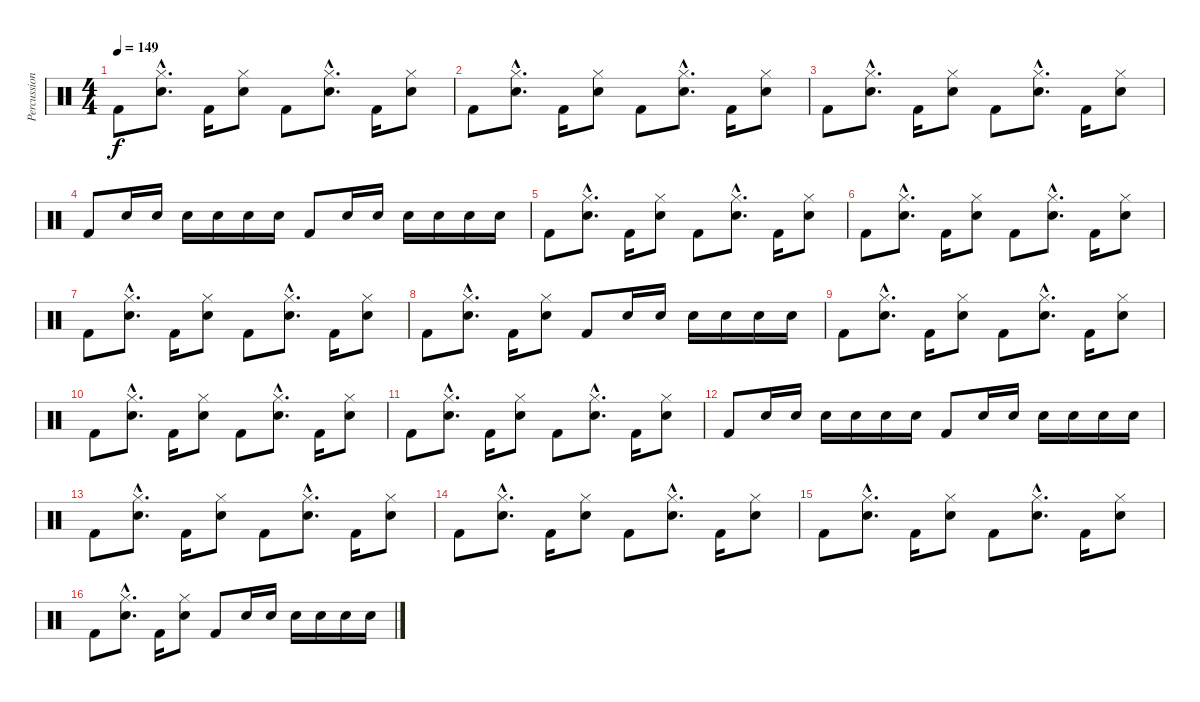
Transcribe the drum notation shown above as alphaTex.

\track ("Percussion" "Percussion") {instrument percussion}
\staff {score}
\articulation defaults
\ts (4 4)
\tempo 149
\clef neutral
\ks c "Kick (hit) 2".8{dy f}
("Snare (hit) 2"{hac} "Hi-Hat (closed)"{hac}).8{d} "Kick (hit) 2".16 ("Snare (hit) 2" "Hi-Hat (closed)").8 "Kick (hit) 2".8 ("Snare (hit) 2"{hac} "Hi-Hat (closed)"{hac}).8{d} "Kick (hit) 2".16 ("Snare (hit) 2" "Hi-Hat (closed)").8 |
"Kick (hit) 2".8 ("Snare (hit) 2"{hac} "Hi-Hat (closed)"{hac}).8{d} "Kick (hit) 2".16 ("Snare (hit) 2" "Hi-Hat (closed)").8 "Kick (hit) 2".8 ("Snare (hit) 2"{hac} "Hi-Hat (closed)"{hac}).8{d} "Kick (hit) 2".16 ("Snare (hit) 2" "Hi-Hat (closed)").8 |
"Kick (hit) 2".8 ("Snare (hit) 2"{hac} "Hi-Hat (closed)"{hac}).8{d} "Kick (hit) 2".16 ("Snare (hit) 2" "Hi-Hat (closed)").8 "Kick (hit) 2".8 ("Snare (hit) 2"{hac} "Hi-Hat (closed)"{hac}).8{d} "Kick (hit) 2".16 ("Snare (hit) 2" "Hi-Hat (closed)").8 |
"Kick (hit) 2".8 "Snare (hit) 2".16 "Snare (hit) 2".16 "Snare (hit) 2".16 "Snare (hit) 2".16 "Snare (hit) 2".16 "Snare (hit) 2".16 "Kick (hit) 2".8 "Snare (hit) 2".16 "Snare (hit) 2".16 "Snare (hit) 2".16 "Snare (hit) 2".16 "Snare (hit) 2".16 "Snare (hit) 2".16 |
"Kick (hit) 2".8 ("Snare (hit) 2"{hac} "Hi-Hat (closed)"{hac}).8{d} "Kick (hit) 2".16 ("Snare (hit) 2" "Hi-Hat (closed)").8 "Kick (hit) 2".8 ("Snare (hit) 2"{hac} "Hi-Hat (closed)"{hac}).8{d} "Kick (hit) 2".16 ("Snare (hit) 2" "Hi-Hat (closed)").8 |
"Kick (hit) 2".8 ("Snare (hit) 2"{hac} "Hi-Hat (closed)"{hac}).8{d} "Kick (hit) 2".16 ("Snare (hit) 2" "Hi-Hat (closed)").8 "Kick (hit) 2".8 ("Snare (hit) 2"{hac} "Hi-Hat (closed)"{hac}).8{d} "Kick (hit) 2".16 ("Snare (hit) 2" "Hi-Hat (closed)").8 |
"Kick (hit) 2".8 ("Snare (hit) 2"{hac} "Hi-Hat (closed)"{hac}).8{d} "Kick (hit) 2".16 ("Snare (hit) 2" "Hi-Hat (closed)").8 "Kick (hit) 2".8 ("Snare (hit) 2"{hac} "Hi-Hat (closed)"{hac}).8{d} "Kick (hit) 2".16 ("Snare (hit) 2" "Hi-Hat (closed)").8 |
"Kick (hit) 2".8 ("Snare (hit) 2"{hac} "Hi-Hat (closed)"{hac}).8{d} "Kick (hit) 2".16 ("Snare (hit) 2" "Hi-Hat (closed)").8 "Kick (hit) 2".8 "Snare (hit) 2".16 "Snare (hit) 2".16 "Snare (hit) 2".16 "Snare (hit) 2".16 "Snare (hit) 2".16 "Snare (hit) 2".16 |
"Kick (hit) 2".8 ("Snare (hit) 2"{hac} "Hi-Hat (closed)"{hac}).8{d} "Kick (hit) 2".16 ("Snare (hit) 2" "Hi-Hat (closed)").8 "Kick (hit) 2".8 ("Snare (hit) 2"{hac} "Hi-Hat (closed)"{hac}).8{d} "Kick (hit) 2".16 ("Snare (hit) 2" "Hi-Hat (closed)").8 |
"Kick (hit) 2".8 ("Snare (hit) 2"{hac} "Hi-Hat (closed)"{hac}).8{d} "Kick (hit) 2".16 ("Snare (hit) 2" "Hi-Hat (closed)").8 "Kick (hit) 2".8 ("Snare (hit) 2"{hac} "Hi-Hat (closed)"{hac}).8{d} "Kick (hit) 2".16 ("Snare (hit) 2" "Hi-Hat (closed)").8 |
"Kick (hit) 2".8 ("Snare (hit) 2"{hac} "Hi-Hat (closed)"{hac}).8{d} "Kick (hit) 2".16 ("Snare (hit) 2" "Hi-Hat (closed)").8 "Kick (hit) 2".8 ("Snare (hit) 2"{hac} "Hi-Hat (closed)"{hac}).8{d} "Kick (hit) 2".16 ("Snare (hit) 2" "Hi-Hat (closed)").8 |
"Kick (hit) 2".8 "Snare (hit) 2".16 "Snare (hit) 2".16 "Snare (hit) 2".16 "Snare (hit) 2".16 "Snare (hit) 2".16 "Snare (hit) 2".16 "Kick (hit) 2".8 "Snare (hit) 2".16 "Snare (hit) 2".16 "Snare (hit) 2".16 "Snare (hit) 2".16 "Snare (hit) 2".16 "Snare (hit) 2".16 |
"Kick (hit) 2".8 ("Snare (hit) 2"{hac} "Hi-Hat (closed)"{hac}).8{d} "Kick (hit) 2".16 ("Snare (hit) 2" "Hi-Hat (closed)").8 "Kick (hit) 2".8 ("Snare (hit) 2"{hac} "Hi-Hat (closed)"{hac}).8{d} "Kick (hit) 2".16 ("Snare (hit) 2" "Hi-Hat (closed)").8 |
"Kick (hit) 2".8 ("Snare (hit) 2"{hac} "Hi-Hat (closed)"{hac}).8{d} "Kick (hit) 2".16 ("Snare (hit) 2" "Hi-Hat (closed)").8 "Kick (hit) 2".8 ("Snare (hit) 2"{hac} "Hi-Hat (closed)"{hac}).8{d} "Kick (hit) 2".16 ("Snare (hit) 2" "Hi-Hat (closed)").8 |
"Kick (hit) 2".8 ("Snare (hit) 2"{hac} "Hi-Hat (closed)"{hac}).8{d} "Kick (hit) 2".16 ("Snare (hit) 2" "Hi-Hat (closed)").8 "Kick (hit) 2".8 ("Snare (hit) 2"{hac} "Hi-Hat (closed)"{hac}).8{d} "Kick (hit) 2".16 ("Snare (hit) 2" "Hi-Hat (closed)").8 |
"Kick (hit) 2".8 ("Snare (hit) 2"{hac} "Hi-Hat (closed)"{hac}).8{d} "Kick (hit) 2".16 ("Snare (hit) 2" "Hi-Hat (closed)").8 "Kick (hit) 2".8 "Snare (hit) 2".16 "Snare (hit) 2".16 "Snare (hit) 2".16 "Snare (hit) 2".16 "Snare (hit) 2".16 "Snare (hit) 2".16
